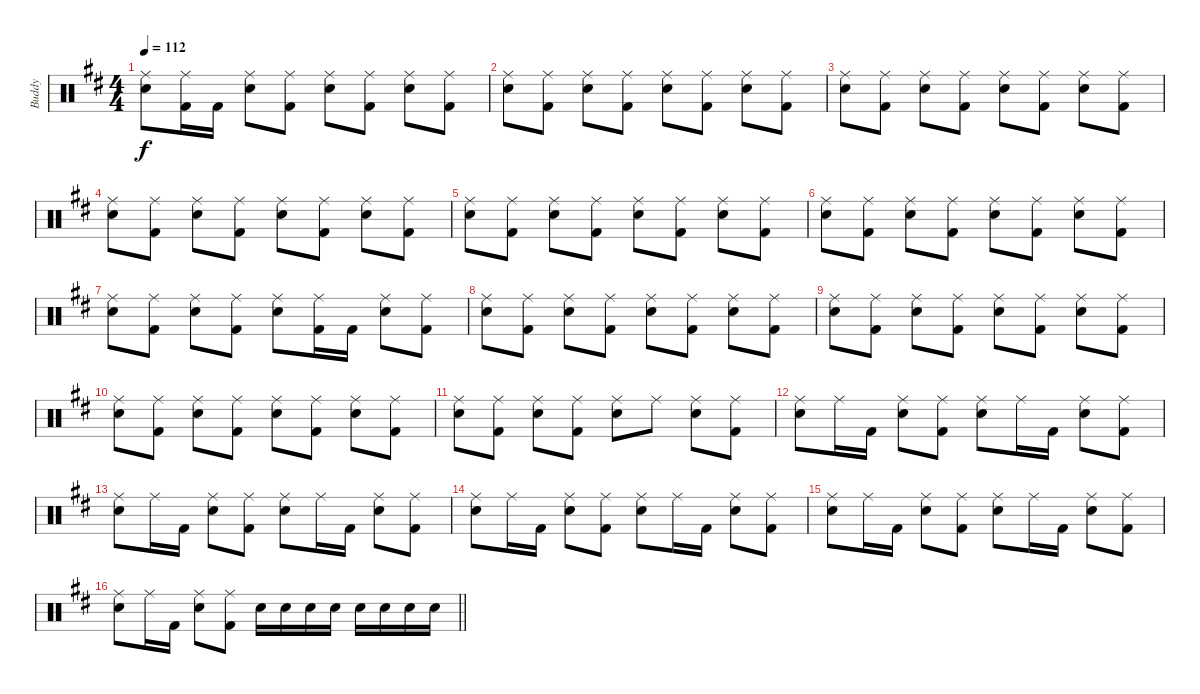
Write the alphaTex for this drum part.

\track ("Buddy " "Buddy ") {instrument percussion}
\staff {score}
\articulation defaults
\ts (4 4)
\tempo 112
\clef neutral
\ks d
("Ride (middle)" "Snare (hit) 2").8{dy f} ("Ride (middle)" "Kick (hit) 2").16 "Kick (hit) 2".16 ("Ride (middle)" "Snare (hit) 2").8 ("Ride (middle)" "Kick (hit) 2").8 ("Ride (middle)" "Snare (hit) 2").8 ("Ride (middle)" "Kick (hit) 2").8 ("Ride (middle)" "Snare (hit) 2").8 ("Ride (middle)" "Kick (hit) 2").8 |
("Ride (middle)" "Snare (hit) 2").8 ("Ride (middle)" "Kick (hit) 2").8 ("Ride (middle)" "Snare (hit) 2").8 ("Ride (middle)" "Kick (hit) 2").8 ("Ride (middle)" "Snare (hit) 2").8 ("Ride (middle)" "Kick (hit) 2").8 ("Ride (middle)" "Snare (hit) 2").8 ("Ride (middle)" "Kick (hit) 2").8 |
("Ride (middle)" "Snare (hit) 2").8 ("Ride (middle)" "Kick (hit) 2").8 ("Ride (middle)" "Snare (hit) 2").8 ("Ride (middle)" "Kick (hit) 2").8 ("Ride (middle)" "Snare (hit) 2").8 ("Ride (middle)" "Kick (hit) 2").8 ("Ride (middle)" "Snare (hit) 2").8 ("Ride (middle)" "Kick (hit) 2").8 |
("Ride (middle)" "Snare (hit) 2").8 ("Ride (middle)" "Kick (hit) 2").8 ("Ride (middle)" "Snare (hit) 2").8 ("Ride (middle)" "Kick (hit) 2").8 ("Ride (middle)" "Snare (hit) 2").8 ("Ride (middle)" "Kick (hit) 2").8 ("Ride (middle)" "Snare (hit) 2").8 ("Ride (middle)" "Kick (hit) 2").8 |
("Ride (middle)" "Snare (hit) 2").8 ("Ride (middle)" "Kick (hit) 2").8 ("Ride (middle)" "Snare (hit) 2").8 ("Ride (middle)" "Kick (hit) 2").8 ("Ride (middle)" "Snare (hit) 2").8 ("Ride (middle)" "Kick (hit) 2").8 ("Ride (middle)" "Snare (hit) 2").8 ("Ride (middle)" "Kick (hit) 2").8 |
("Ride (middle)" "Snare (hit) 2").8 ("Ride (middle)" "Kick (hit) 2").8 ("Ride (middle)" "Snare (hit) 2").8 ("Ride (middle)" "Kick (hit) 2").8 ("Ride (middle)" "Snare (hit) 2").8 ("Ride (middle)" "Kick (hit) 2").8 ("Ride (middle)" "Snare (hit) 2").8 ("Ride (middle)" "Kick (hit) 2").8 |
("Ride (middle)" "Snare (hit) 2").8 ("Ride (middle)" "Kick (hit) 2").8 ("Ride (middle)" "Snare (hit) 2").8 ("Ride (middle)" "Kick (hit) 2").8 ("Ride (middle)" "Snare (hit) 2").8 ("Ride (middle)" "Kick (hit) 2").16 "Kick (hit) 2".16 ("Ride (middle)" "Snare (hit) 2").8 ("Ride (middle)" "Kick (hit) 2").8 |
("Ride (middle)" "Snare (hit) 2").8 ("Ride (middle)" "Kick (hit) 2").8 ("Ride (middle)" "Snare (hit) 2").8 ("Ride (middle)" "Kick (hit) 2").8 ("Ride (middle)" "Snare (hit) 2").8 ("Ride (middle)" "Kick (hit) 2").8 ("Ride (middle)" "Snare (hit) 2").8 ("Ride (middle)" "Kick (hit) 2").8 |
("Ride (middle)" "Snare (hit) 2").8 ("Ride (middle)" "Kick (hit) 2").8 ("Ride (middle)" "Snare (hit) 2").8 ("Ride (middle)" "Kick (hit) 2").8 ("Ride (middle)" "Snare (hit) 2").8 ("Ride (middle)" "Kick (hit) 2").8 ("Ride (middle)" "Snare (hit) 2").8 ("Ride (middle)" "Kick (hit) 2").8 |
("Ride (middle)" "Snare (hit) 2").8 ("Ride (middle)" "Kick (hit) 2").8 ("Ride (middle)" "Snare (hit) 2").8 ("Ride (middle)" "Kick (hit) 2").8 ("Ride (middle)" "Snare (hit) 2").8 ("Ride (middle)" "Kick (hit) 2").8 ("Ride (middle)" "Snare (hit) 2").8 ("Ride (middle)" "Kick (hit) 2").8 |
("Ride (middle)" "Snare (hit) 2").8 ("Ride (middle)" "Kick (hit) 2").8 ("Ride (middle)" "Snare (hit) 2").8 ("Ride (middle)" "Kick (hit) 2").8 ("Ride (middle)" "Snare (hit) 2").8 "Ride (middle)".8 ("Ride (middle)" "Snare (hit) 2").8 ("Ride (middle)" "Kick (hit) 2").8 |
("Ride (middle)" "Snare (hit) 2").8 "Ride (middle)".16 "Kick (hit) 2".16 ("Ride (middle)" "Snare (hit) 2").8 ("Ride (middle)" "Kick (hit) 2").8 ("Ride (middle)" "Snare (hit) 2").8 "Ride (middle)".16 "Kick (hit) 2".16 ("Ride (middle)" "Snare (hit) 2").8 ("Ride (middle)" "Kick (hit) 2").8 |
("Ride (middle)" "Snare (hit) 2").8 "Ride (middle)".16 "Kick (hit) 2".16 ("Ride (middle)" "Snare (hit) 2").8 ("Ride (middle)" "Kick (hit) 2").8 ("Ride (middle)" "Snare (hit) 2").8 "Ride (middle)".16 "Kick (hit) 2".16 ("Ride (middle)" "Snare (hit) 2").8 ("Ride (middle)" "Kick (hit) 2").8 |
("Ride (middle)" "Snare (hit) 2").8 "Ride (middle)".16 "Kick (hit) 2".16 ("Ride (middle)" "Snare (hit) 2").8 ("Ride (middle)" "Kick (hit) 2").8 ("Ride (middle)" "Snare (hit) 2").8 "Ride (middle)".16 "Kick (hit) 2".16 ("Ride (middle)" "Snare (hit) 2").8 ("Ride (middle)" "Kick (hit) 2").8 |
("Ride (middle)" "Snare (hit) 2").8 "Ride (middle)".16 "Kick (hit) 2".16 ("Ride (middle)" "Snare (hit) 2").8 ("Ride (middle)" "Kick (hit) 2").8 ("Ride (middle)" "Snare (hit) 2").8 "Ride (middle)".16 "Kick (hit) 2".16 ("Ride (middle)" "Snare (hit) 2").8 ("Ride (middle)" "Kick (hit) 2").8 |
\barLineRight lightlight
("Ride (middle)" "Snare (hit) 2").8 "Ride (middle)".16 "Kick (hit) 2".16 ("Ride (middle)" "Snare (hit) 2").8 ("Ride (middle)" "Kick (hit) 2").8 "Snare (hit) 2".16 "Snare (hit) 2".16 "Snare (hit) 2".16 "Snare (hit) 2".16 "Snare (hit) 2".16 "Snare (hit) 2".16 "Snare (hit) 2".16 "Snare (hit) 2".16
